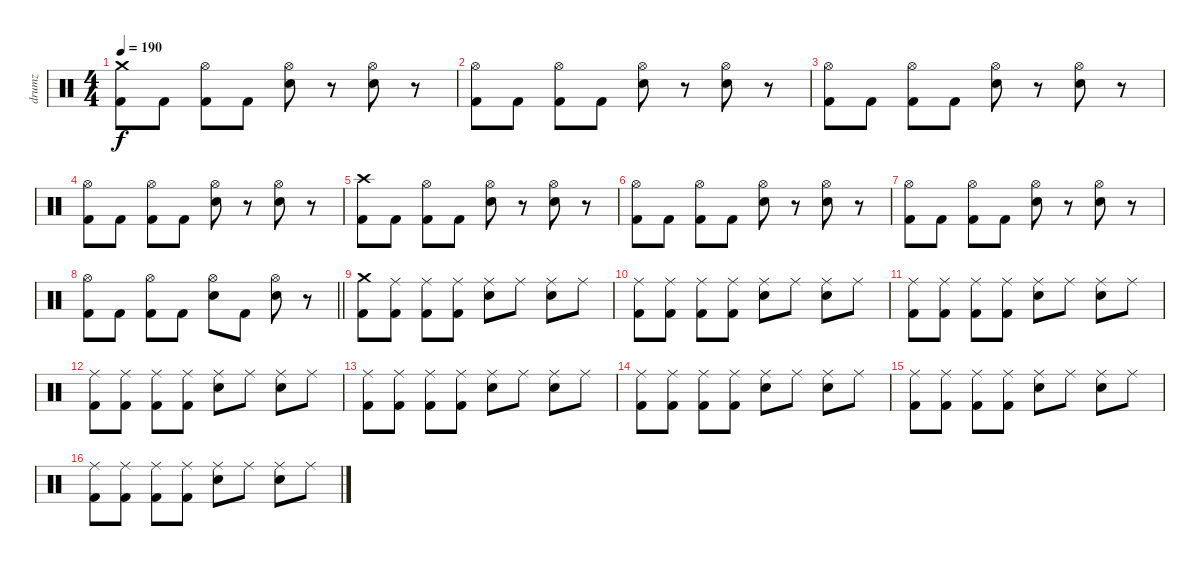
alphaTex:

\track ("drumz" "drumz") {instrument percussion}
\staff {score}
\articulation defaults
\ts (4 4)
\tempo 190
\clef neutral
\ks c
("Crash medium (hit)" "Kick (hit) 2").8{dy f} "Kick (hit) 2".8 ("Hi-Hat (open)" "Kick (hit) 2").8 "Kick (hit) 2".8 ("Hi-Hat (open)" "Electric Snare (hit)").8 r.8 ("Hi-Hat (open)" "Electric Snare (hit)").8 r.8 |
("Hi-Hat (open)" "Kick (hit) 2").8 "Kick (hit) 2".8 ("Hi-Hat (open)" "Kick (hit) 2").8 "Kick (hit) 2".8 ("Hi-Hat (open)" "Electric Snare (hit)").8 r.8 ("Hi-Hat (open)" "Electric Snare (hit)").8 r.8 |
("Hi-Hat (open)" "Kick (hit) 2").8 "Kick (hit) 2".8 ("Hi-Hat (open)" "Kick (hit) 2").8 "Kick (hit) 2".8 ("Hi-Hat (open)" "Electric Snare (hit)").8 r.8 ("Hi-Hat (open)" "Electric Snare (hit)").8 r.8 |
("Hi-Hat (open)" "Kick (hit) 2").8 "Kick (hit) 2".8 ("Hi-Hat (open)" "Kick (hit) 2").8 "Kick (hit) 2".8 ("Hi-Hat (open)" "Electric Snare (hit)").8 r.8 ("Hi-Hat (open)" "Electric Snare (hit)").8 r.8 |
("Crash high (hit)" "Kick (hit) 2").8 "Kick (hit) 2".8 ("Hi-Hat (open)" "Kick (hit) 2").8 "Kick (hit) 2".8 ("Hi-Hat (open)" "Electric Snare (hit)").8 r.8 ("Hi-Hat (open)" "Electric Snare (hit)").8 r.8 |
("Hi-Hat (open)" "Kick (hit) 2").8 "Kick (hit) 2".8 ("Hi-Hat (open)" "Kick (hit) 2").8 "Kick (hit) 2".8 ("Hi-Hat (open)" "Electric Snare (hit)").8 r.8 ("Hi-Hat (open)" "Electric Snare (hit)").8 r.8 |
("Hi-Hat (open)" "Kick (hit) 2").8 "Kick (hit) 2".8 ("Hi-Hat (open)" "Kick (hit) 2").8 "Kick (hit) 2".8 ("Hi-Hat (open)" "Electric Snare (hit)").8 r.8 ("Hi-Hat (open)" "Electric Snare (hit)").8 r.8 |
\barLineRight lightlight
("Hi-Hat (open)" "Kick (hit) 2").8 "Kick (hit) 2".8 ("Hi-Hat (open)" "Kick (hit) 2").8 "Kick (hit) 2".8 ("Hi-Hat (open)" "Electric Snare (hit)").8 "Kick (hit) 2".8 ("Hi-Hat (open)" "Electric Snare (hit)").8 r.8 |
\section ("" "")
("Crash medium (hit)" "Kick (hit) 2").8 ("Ride (middle)" "Kick (hit) 2").8 ("Ride (middle)" "Kick (hit) 2").8 ("Ride (middle)" "Kick (hit) 2").8 ("Ride (middle)" "Electric Snare (hit)").8 "Ride (middle)".8 ("Ride (middle)" "Electric Snare (hit)").8 "Ride (middle)".8 |
("Ride (middle)" "Kick (hit) 2").8 ("Ride (middle)" "Kick (hit) 2").8 ("Ride (middle)" "Kick (hit) 2").8 ("Ride (middle)" "Kick (hit) 2").8 ("Ride (middle)" "Electric Snare (hit)").8 "Ride (middle)".8 ("Ride (middle)" "Electric Snare (hit)").8 "Ride (middle)".8 |
("Ride (middle)" "Kick (hit) 2").8 ("Ride (middle)" "Kick (hit) 2").8 ("Ride (middle)" "Kick (hit) 2").8 ("Ride (middle)" "Kick (hit) 2").8 ("Ride (middle)" "Electric Snare (hit)").8 "Ride (middle)".8 ("Ride (middle)" "Electric Snare (hit)").8 "Ride (middle)".8 |
("Ride (middle)" "Kick (hit) 2").8 ("Ride (middle)" "Kick (hit) 2").8 ("Ride (middle)" "Kick (hit) 2").8 ("Ride (middle)" "Kick (hit) 2").8 ("Ride (middle)" "Electric Snare (hit)").8 "Ride (middle)".8 ("Ride (middle)" "Electric Snare (hit)").8 "Ride (middle)".8 |
("Ride (middle)" "Kick (hit) 2").8 ("Ride (middle)" "Kick (hit) 2").8 ("Ride (middle)" "Kick (hit) 2").8 ("Ride (middle)" "Kick (hit) 2").8 ("Ride (middle)" "Electric Snare (hit)").8 "Ride (middle)".8 ("Ride (middle)" "Electric Snare (hit)").8 "Ride (middle)".8 |
("Ride (middle)" "Kick (hit) 2").8 ("Ride (middle)" "Kick (hit) 2").8 ("Ride (middle)" "Kick (hit) 2").8 ("Ride (middle)" "Kick (hit) 2").8 ("Ride (middle)" "Electric Snare (hit)").8 "Ride (middle)".8 ("Ride (middle)" "Electric Snare (hit)").8 "Ride (middle)".8 |
("Ride (middle)" "Kick (hit) 2").8 ("Ride (middle)" "Kick (hit) 2").8 ("Ride (middle)" "Kick (hit) 2").8 ("Ride (middle)" "Kick (hit) 2").8 ("Ride (middle)" "Electric Snare (hit)").8 "Ride (middle)".8 ("Ride (middle)" "Electric Snare (hit)").8 "Ride (middle)".8 |
("Ride (middle)" "Kick (hit) 2").8 ("Ride (middle)" "Kick (hit) 2").8 ("Ride (middle)" "Kick (hit) 2").8 ("Ride (middle)" "Kick (hit) 2").8 ("Ride (middle)" "Electric Snare (hit)").8 "Ride (middle)".8 ("Ride (middle)" "Electric Snare (hit)").8 "Ride (middle)".8
